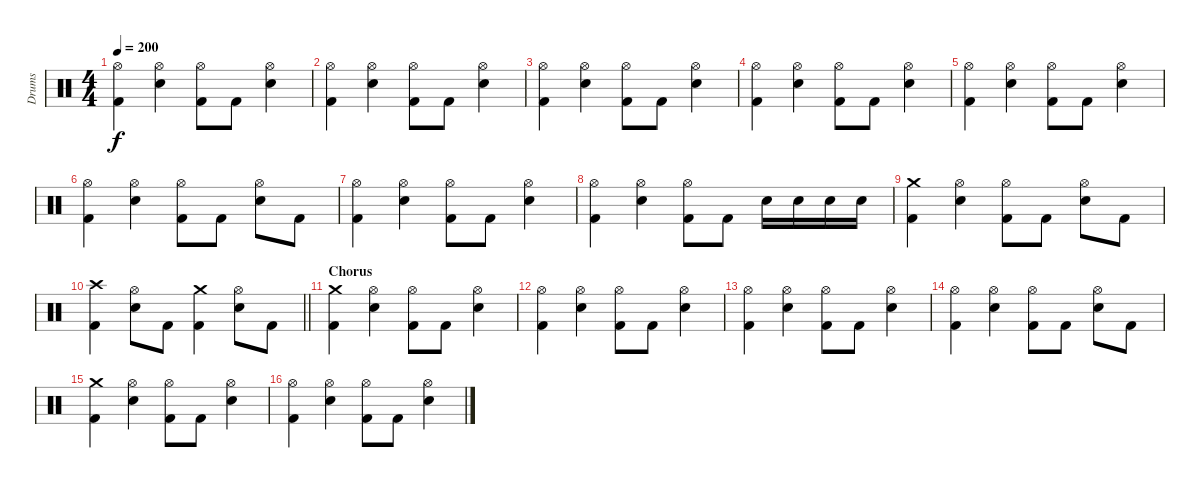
\track ("Drums" "Drums") {instrument percussion}
\staff {score}
\articulation defaults
\ts (4 4)
\tempo 200
\clef neutral
\ks c
("Hi-Hat (open)" "Kick (hit) 2").4{dy f} ("Hi-Hat (open)" "Electric Snare (hit)").4 ("Hi-Hat (open)" "Kick (hit) 2").8 "Kick (hit) 2".8 ("Hi-Hat (open)" "Electric Snare (hit)").4 |
("Hi-Hat (open)" "Kick (hit) 2").4 ("Hi-Hat (open)" "Electric Snare (hit)").4 ("Hi-Hat (open)" "Kick (hit) 2").8 "Kick (hit) 2".8 ("Hi-Hat (open)" "Electric Snare (hit)").4 |
("Hi-Hat (open)" "Kick (hit) 2").4 ("Hi-Hat (open)" "Electric Snare (hit)").4 ("Hi-Hat (open)" "Kick (hit) 2").8 "Kick (hit) 2".8 ("Hi-Hat (open)" "Electric Snare (hit)").4 |
("Hi-Hat (open)" "Kick (hit) 2").4 ("Hi-Hat (open)" "Electric Snare (hit)").4 ("Hi-Hat (open)" "Kick (hit) 2").8 "Kick (hit) 2".8 ("Hi-Hat (open)" "Electric Snare (hit)").4 |
("Hi-Hat (open)" "Kick (hit) 2").4 ("Hi-Hat (open)" "Electric Snare (hit)").4 ("Hi-Hat (open)" "Kick (hit) 2").8 "Kick (hit) 2".8 ("Hi-Hat (open)" "Electric Snare (hit)").4 |
("Hi-Hat (open)" "Kick (hit) 2").4 ("Hi-Hat (open)" "Electric Snare (hit)").4 ("Hi-Hat (open)" "Kick (hit) 2").8 "Kick (hit) 2".8 ("Hi-Hat (open)" "Electric Snare (hit)").8 "Kick (hit) 2".8 |
("Hi-Hat (open)" "Kick (hit) 2").4 ("Hi-Hat (open)" "Electric Snare (hit)").4 ("Hi-Hat (open)" "Kick (hit) 2").8 "Kick (hit) 2".8 ("Hi-Hat (open)" "Electric Snare (hit)").4 |
("Hi-Hat (open)" "Kick (hit) 2").4 ("Hi-Hat (open)" "Electric Snare (hit)").4 ("Hi-Hat (open)" "Kick (hit) 2").8 "Kick (hit) 2".8 "Electric Snare (hit)".16 "Electric Snare (hit)".16 "Electric Snare (hit)".16 "Electric Snare (hit)".16 |
("Crash medium (hit)" "Kick (hit) 2").4 ("Hi-Hat (open)" "Electric Snare (hit)").4 ("Hi-Hat (open)" "Kick (hit) 2").8 "Kick (hit) 2".8 ("Hi-Hat (open)" "Electric Snare (hit)").8 "Kick (hit) 2".8 |
\barLineRight lightlight
("Crash high (hit)" "Kick (hit) 2").4 ("Hi-Hat (open)" "Electric Snare (hit)").8 "Kick (hit) 2".8 ("Crash medium (hit)" "Kick (hit) 2").4 ("Hi-Hat (open)" "Electric Snare (hit)").8 "Kick (hit) 2".8 |
\section ("" "Chorus")
("Crash medium (hit)" "Kick (hit) 2").4 ("Hi-Hat (open)" "Electric Snare (hit)").4 ("Hi-Hat (open)" "Kick (hit) 2").8 "Kick (hit) 2".8 ("Hi-Hat (open)" "Electric Snare (hit)").4 |
("Hi-Hat (open)" "Kick (hit) 2").4 ("Hi-Hat (open)" "Electric Snare (hit)").4 ("Hi-Hat (open)" "Kick (hit) 2").8 "Kick (hit) 2".8 ("Hi-Hat (open)" "Electric Snare (hit)").4 |
("Hi-Hat (open)" "Kick (hit) 2").4 ("Hi-Hat (open)" "Electric Snare (hit)").4 ("Hi-Hat (open)" "Kick (hit) 2").8 "Kick (hit) 2".8 ("Hi-Hat (open)" "Electric Snare (hit)").4 |
("Hi-Hat (open)" "Kick (hit) 2").4 ("Hi-Hat (open)" "Electric Snare (hit)").4 ("Hi-Hat (open)" "Kick (hit) 2").8 "Kick (hit) 2".8 ("Hi-Hat (open)" "Electric Snare (hit)").8 "Kick (hit) 2".8 |
("Crash medium (hit)" "Kick (hit) 2").4 ("Hi-Hat (open)" "Electric Snare (hit)").4 ("Hi-Hat (open)" "Kick (hit) 2").8 "Kick (hit) 2".8 ("Hi-Hat (open)" "Electric Snare (hit)").4 |
("Hi-Hat (open)" "Kick (hit) 2").4 ("Hi-Hat (open)" "Electric Snare (hit)").4 ("Hi-Hat (open)" "Kick (hit) 2").8 "Kick (hit) 2".8 ("Hi-Hat (open)" "Electric Snare (hit)").4
